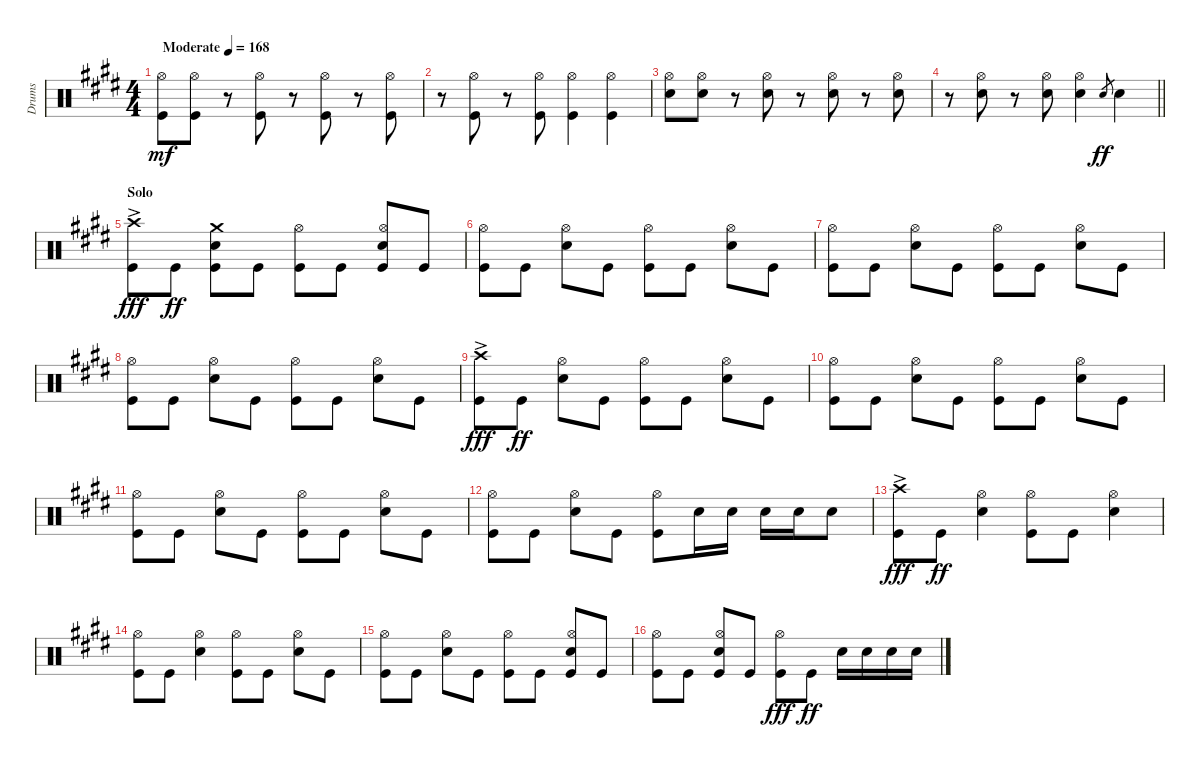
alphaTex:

\track ("Drums" "Drums") {instrument percussion}
\staff {score}
\articulation defaults
\ts (4 4)
\tempo (168 "Moderate")
\clef neutral
\ks e
("Kick (hit)" "Hi-Hat (open)").8{dy mf} ("Kick (hit)" "Hi-Hat (open)").8 r.8 ("Kick (hit)" "Hi-Hat (open)").8 r.8 ("Kick (hit)" "Hi-Hat (open)").8 r.8 ("Kick (hit)" "Hi-Hat (open)").8 |
r.8 ("Kick (hit)" "Hi-Hat (open)").8 r.8 ("Kick (hit)" "Hi-Hat (open)").8 ("Kick (hit)" "Hi-Hat (open)").4 ("Kick (hit)" "Hi-Hat (open)").4 |
("Snare (hit) 2" "Hi-Hat (open)").8 ("Snare (hit) 2" "Hi-Hat (open)").8 r.8 ("Snare (hit) 2" "Hi-Hat (open)").8 r.8 ("Snare (hit) 2" "Hi-Hat (open)").8 r.8 ("Snare (hit) 2" "Hi-Hat (open)").8 |
\barLineRight lightlight
r.8 ("Snare (hit) 2" "Hi-Hat (open)").8 r.8 ("Snare (hit) 2" "Hi-Hat (open)").8 ("Snare (hit) 2" "Hi-Hat (open)").4 "Snare (hit) 2".8{gr dy ff} "Snare (hit) 2".4 |
\section ("" "Solo")
("Kick (hit)" "Crash high (hit)"{ac}).8{dy fff} "Kick (hit)".8{dy ff} ("Snare (hit) 2" "Kick (hit)" "Crash medium (hit)").8 "Kick (hit)".8 ("Kick (hit)" "Hi-Hat (open)").8 "Kick (hit)".8 ("Snare (hit) 2" "Kick (hit)" "Hi-Hat (open)").8 "Kick (hit)".8 |
("Kick (hit)" "Hi-Hat (open)").8 "Kick (hit)".8 ("Snare (hit) 2" "Hi-Hat (open)").8 "Kick (hit)".8 ("Kick (hit)" "Hi-Hat (open)").8 "Kick (hit)".8 ("Snare (hit) 2" "Hi-Hat (open)").8 "Kick (hit)".8 |
("Kick (hit)" "Hi-Hat (open)").8 "Kick (hit)".8 ("Snare (hit) 2" "Hi-Hat (open)").8 "Kick (hit)".8 ("Kick (hit)" "Hi-Hat (open)").8 "Kick (hit)".8 ("Snare (hit) 2" "Hi-Hat (open)").8 "Kick (hit)".8 |
("Kick (hit)" "Hi-Hat (open)").8 "Kick (hit)".8 ("Snare (hit) 2" "Hi-Hat (open)").8 "Kick (hit)".8 ("Kick (hit)" "Hi-Hat (open)").8 "Kick (hit)".8 ("Snare (hit) 2" "Hi-Hat (open)").8 "Kick (hit)".8 |
("Kick (hit)" "Crash high (hit)"{ac}).8{dy fff} "Kick (hit)".8{dy ff} ("Snare (hit) 2" "Hi-Hat (open)").8 "Kick (hit)".8 ("Kick (hit)" "Hi-Hat (open)").8 "Kick (hit)".8 ("Snare (hit) 2" "Hi-Hat (open)").8 "Kick (hit)".8 |
("Kick (hit)" "Hi-Hat (open)").8 "Kick (hit)".8 ("Snare (hit) 2" "Hi-Hat (open)").8 "Kick (hit)".8 ("Kick (hit)" "Hi-Hat (open)").8 "Kick (hit)".8 ("Snare (hit) 2" "Hi-Hat (open)").8 "Kick (hit)".8 |
("Kick (hit)" "Hi-Hat (open)").8 "Kick (hit)".8 ("Snare (hit) 2" "Hi-Hat (open)").8 "Kick (hit)".8 ("Kick (hit)" "Hi-Hat (open)").8 "Kick (hit)".8 ("Snare (hit) 2" "Hi-Hat (open)").8 "Kick (hit)".8 |
("Kick (hit)" "Hi-Hat (open)").8 "Kick (hit)".8 ("Snare (hit) 2" "Hi-Hat (open)").8 "Kick (hit)".8 ("Kick (hit)" "Hi-Hat (open)").8 "Snare (hit) 2".16 "Snare (hit) 2".16 "Snare (hit) 2".16 "Snare (hit) 2".16 "Snare (hit) 2".8 |
("Kick (hit)" "Crash high (hit)"{ac}).8{dy fff} "Kick (hit)".8{dy ff} ("Snare (hit) 2" "Hi-Hat (open)").4 ("Kick (hit)" "Hi-Hat (open)").8 "Kick (hit)".8 ("Snare (hit) 2" "Hi-Hat (open)").4 |
("Kick (hit)" "Hi-Hat (open)").8 "Kick (hit)".8 ("Snare (hit) 2" "Hi-Hat (open)").4 ("Kick (hit)" "Hi-Hat (open)").8 "Kick (hit)".8 ("Snare (hit) 2" "Hi-Hat (open)").8 "Kick (hit)".8 |
("Kick (hit)" "Hi-Hat (open)").8 "Kick (hit)".8 ("Snare (hit) 2" "Hi-Hat (open)").8 "Kick (hit)".8 ("Kick (hit)" "Hi-Hat (open)").8 "Kick (hit)".8 ("Snare (hit) 2" "Hi-Hat (open)" "Kick (hit)").8 "Kick (hit)".8 |
("Kick (hit)" "Hi-Hat (open)").8 "Kick (hit)".8 ("Snare (hit) 2" "Hi-Hat (open)" "Kick (hit)").8 "Kick (hit)".8 ("Kick (hit)" "Hi-Hat (open)").8{dy fff} "Kick (hit)".8{dy ff} "Snare (hit) 2".16 "Snare (hit) 2".16 "Snare (hit) 2".16 "Snare (hit) 2".16
